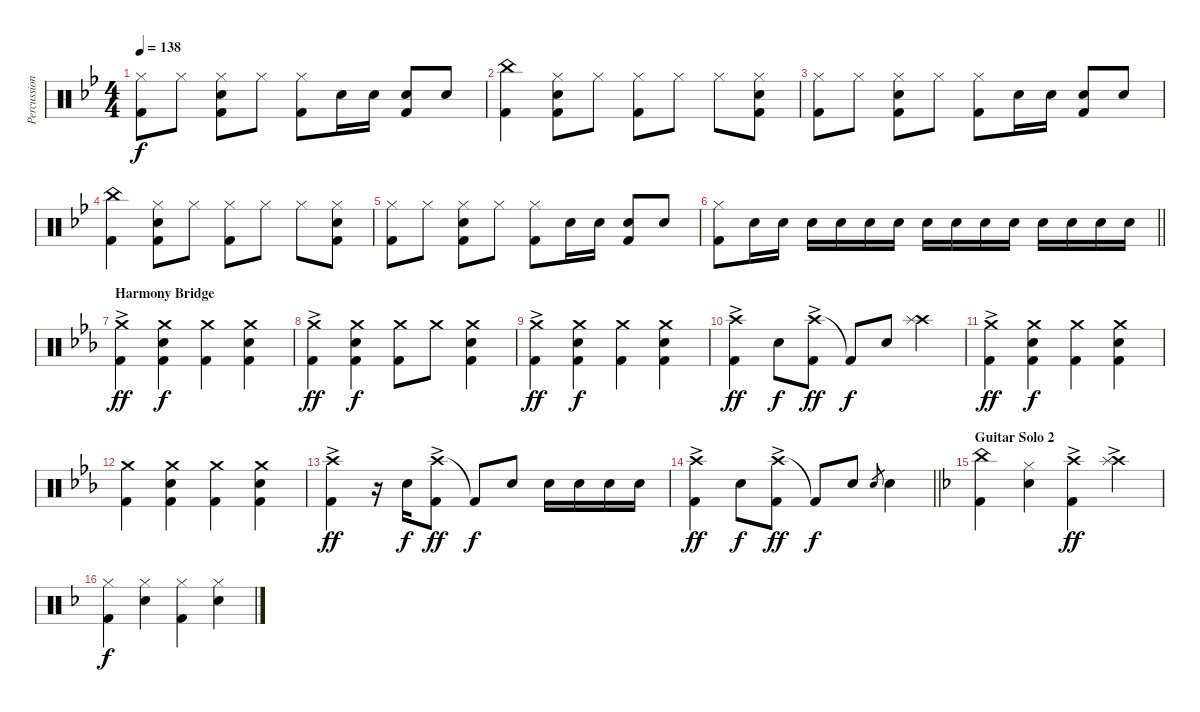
\track ("Percussion" "Percussion") {instrument percussion}
\staff {score}
\articulation defaults
\ts (4 4)
\tempo 138
\clef neutral
\ks bb
("Hi-Hat (closed)" "Kick (hit) 2").8{dy f} "Hi-Hat (closed)".8 ("Hi-Hat (closed)" "Snare (hit) 2" "Kick (hit) 2").8 "Hi-Hat (closed)".8 ("Hi-Hat (closed)" "Kick (hit) 2").8 "Snare (hit) 2".16 "Snare (hit) 2".16 ("Snare (hit) 2" "Kick (hit) 2").8 "Snare (hit) 2".8 |
("China (hit)" "Kick (hit) 2").4 ("Hi-Hat (closed)" "Snare (hit) 2" "Kick (hit) 2").8 "Hi-Hat (closed)".8 ("Hi-Hat (closed)" "Kick (hit) 2").8 "Hi-Hat (closed)".8 "Hi-Hat (closed)".8 ("Hi-Hat (closed)" "Snare (hit) 2" "Kick (hit) 2").8 |
("Hi-Hat (closed)" "Kick (hit) 2").8 "Hi-Hat (closed)".8 ("Hi-Hat (closed)" "Snare (hit) 2" "Kick (hit) 2").8 "Hi-Hat (closed)".8 ("Hi-Hat (closed)" "Kick (hit) 2").8 "Snare (hit) 2".16 "Snare (hit) 2".16 ("Snare (hit) 2" "Kick (hit) 2").8 "Snare (hit) 2".8 |
("China (hit)" "Kick (hit) 2").4 ("Hi-Hat (closed)" "Snare (hit) 2" "Kick (hit) 2").8 "Hi-Hat (closed)".8 ("Hi-Hat (closed)" "Kick (hit) 2").8 "Hi-Hat (closed)".8 "Hi-Hat (closed)".8 ("Hi-Hat (closed)" "Snare (hit) 2" "Kick (hit) 2").8 |
("Hi-Hat (closed)" "Kick (hit) 2").8 "Hi-Hat (closed)".8 ("Hi-Hat (closed)" "Snare (hit) 2" "Kick (hit) 2").8 "Hi-Hat (closed)".8 ("Hi-Hat (closed)" "Kick (hit) 2").8 "Snare (hit) 2".16 "Snare (hit) 2".16 ("Snare (hit) 2" "Kick (hit) 2").8 "Snare (hit) 2".8 |
\barLineRight lightlight
("Hi-Hat (closed)" "Kick (hit) 2").8 "Snare (hit) 2".16 "Snare (hit) 2".16 "Snare (hit) 2".16 "Snare (hit) 2".16{beam merge} "Snare (hit) 2".16 "Snare (hit) 2".16{beam split} "Snare (hit) 2".16 "Snare (hit) 2".16{beam merge} "Snare (hit) 2".16 "Snare (hit) 2".16{beam split} "Snare (hit) 2".16 "Snare (hit) 2".16{beam merge} "Snare (hit) 2".16 "Snare (hit) 2".16 |
\section ("" "Harmony Bridge")
\ks eb
("Crash medium (hit)"{ac} "Kick (hit) 2"{ac}).4{dy ff} ("Crash medium (hit)" "Snare (hit) 2" "Kick (hit) 2").4{dy f} ("Crash medium (hit)" "Kick (hit) 2").4 ("Crash medium (hit)" "Snare (hit) 2" "Kick (hit) 2").4 |
("Crash medium (hit)"{ac} "Kick (hit) 2"{ac}).4{dy ff} ("Crash medium (hit)" "Snare (hit) 2" "Kick (hit) 2").4{dy f} ("Crash medium (hit)" "Kick (hit) 2").8 "Crash medium (hit)".8 ("Crash medium (hit)" "Snare (hit) 2" "Kick (hit) 2").4 |
("Crash medium (hit)"{ac} "Kick (hit) 2"{ac}).4{dy ff} ("Crash medium (hit)" "Snare (hit) 2" "Kick (hit) 2").4{dy f} ("Crash medium (hit)" "Kick (hit) 2").4 ("Crash medium (hit)" "Snare (hit) 2" "Kick (hit) 2").4 |
("Crash high (hit)"{ac} "Kick (hit) 2").4{dy ff} "Snare (hit) 2".8{dy f} ("Crash high (hit)"{ac} "Kick (hit) 2").8{dy ff} "Kick (hit) 2"{t}.8{dy f} "Snare (hit) 2".8 ("Crash high (hit)" "Splash (hit)").4 |
("Crash medium (hit)"{ac} "Kick (hit) 2"{ac}).4{dy ff} ("Crash medium (hit)" "Snare (hit) 2" "Kick (hit) 2").4{dy f} ("Crash medium (hit)" "Kick (hit) 2").4 ("Crash medium (hit)" "Snare (hit) 2" "Kick (hit) 2").4 |
("Crash medium (hit)" "Kick (hit) 2").4 ("Crash medium (hit)" "Snare (hit) 2" "Kick (hit) 2").4 ("Crash medium (hit)" "Kick (hit) 2").4 ("Crash medium (hit)" "Snare (hit) 2" "Kick (hit) 2").4 |
("Crash high (hit)"{ac} "Kick (hit) 2").4{dy ff} r.16 "Snare (hit) 2".16{dy f} ("Crash high (hit)"{ac} "Kick (hit) 2").8{dy ff} "Kick (hit) 2"{t}.8{dy f} "Snare (hit) 2".8 "Snare (hit) 2".16{beam merge} "Snare (hit) 2".16 "Snare (hit) 2".16 "Snare (hit) 2".16 |
\barLineRight lightlight
("Crash high (hit)"{ac} "Kick (hit) 2").4{dy ff} "Snare (hit) 2".8{dy f} ("Crash high (hit)"{ac} "Kick (hit) 2").8{dy ff} "Kick (hit) 2"{t}.8{dy f} "Snare (hit) 2".8 "Snare (hit) 2".8{gr} "Snare (hit) 2".4 |
\section ("" "Guitar Solo 2")
\ks f
("China (hit)" "Kick (hit) 2").4 ("Hi-Hat (closed)" "Snare (hit) 2").4 ("Crash high (hit)"{ac} "Kick (hit) 2"{ac}).4{dy ff} ("Crash high (hit)"{ac} "Splash (hit)"{ac}).4 |
("Hi-Hat (closed)" "Kick (hit) 2").4{dy f} ("Hi-Hat (closed)" "Snare (hit) 2").4 ("Hi-Hat (closed)" "Kick (hit) 2").4 ("Hi-Hat (closed)" "Snare (hit) 2").4
